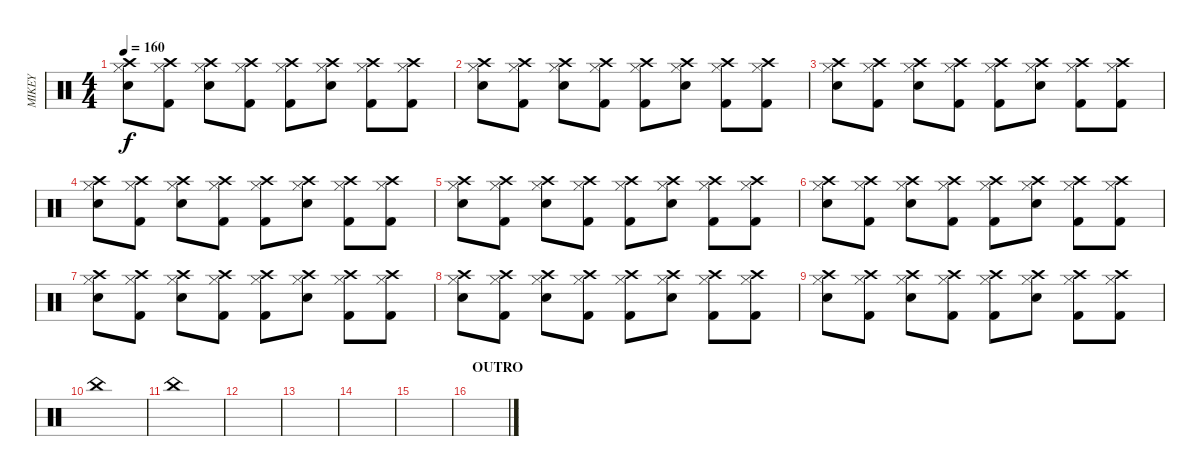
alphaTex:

\track ("MIKEY" "MIKEY") {instrument percussion}
\staff {score}
\articulation defaults
\ts (4 4)
\tempo 160
\clef neutral
\ks c
("Hi-Hat (closed)" "Crash high (hit)" "Electric Snare (hit)").8{dy f} ("Hi-Hat (closed)" "Crash high (hit)" "Kick (hit) 2").8 ("Hi-Hat (closed)" "Crash high (hit)" "Electric Snare (hit)").8 ("Hi-Hat (closed)" "Crash high (hit)" "Kick (hit) 2").8 ("Hi-Hat (closed)" "Crash high (hit)" "Kick (hit) 2").8 ("Hi-Hat (closed)" "Crash high (hit)" "Electric Snare (hit)").8 ("Hi-Hat (closed)" "Crash high (hit)" "Kick (hit) 2").8 ("Hi-Hat (closed)" "Crash high (hit)" "Kick (hit) 2").8 |
("Hi-Hat (closed)" "Crash high (hit)" "Electric Snare (hit)").8 ("Hi-Hat (closed)" "Crash high (hit)" "Kick (hit) 2").8 ("Hi-Hat (closed)" "Crash high (hit)" "Electric Snare (hit)").8 ("Hi-Hat (closed)" "Crash high (hit)" "Kick (hit) 2").8 ("Hi-Hat (closed)" "Crash high (hit)" "Kick (hit) 2").8 ("Hi-Hat (closed)" "Crash high (hit)" "Electric Snare (hit)").8 ("Hi-Hat (closed)" "Crash high (hit)" "Kick (hit) 2").8 ("Hi-Hat (closed)" "Crash high (hit)" "Kick (hit) 2").8 |
("Hi-Hat (closed)" "Crash high (hit)" "Electric Snare (hit)").8 ("Hi-Hat (closed)" "Crash high (hit)" "Kick (hit) 2").8 ("Hi-Hat (closed)" "Crash high (hit)" "Electric Snare (hit)").8 ("Hi-Hat (closed)" "Crash high (hit)" "Kick (hit) 2").8 ("Hi-Hat (closed)" "Crash high (hit)" "Kick (hit) 2").8 ("Hi-Hat (closed)" "Crash high (hit)" "Electric Snare (hit)").8 ("Hi-Hat (closed)" "Crash high (hit)" "Kick (hit) 2").8 ("Hi-Hat (closed)" "Crash high (hit)" "Kick (hit) 2").8 |
("Hi-Hat (closed)" "Crash high (hit)" "Electric Snare (hit)").8 ("Hi-Hat (closed)" "Crash high (hit)" "Kick (hit) 2").8 ("Hi-Hat (closed)" "Crash high (hit)" "Electric Snare (hit)").8 ("Hi-Hat (closed)" "Crash high (hit)" "Kick (hit) 2").8 ("Hi-Hat (closed)" "Crash high (hit)" "Kick (hit) 2").8 ("Hi-Hat (closed)" "Crash high (hit)" "Electric Snare (hit)").8 ("Hi-Hat (closed)" "Crash high (hit)" "Kick (hit) 2").8 ("Hi-Hat (closed)" "Crash high (hit)" "Kick (hit) 2").8 |
("Hi-Hat (closed)" "Crash high (hit)" "Electric Snare (hit)").8 ("Hi-Hat (closed)" "Crash high (hit)" "Kick (hit) 2").8 ("Hi-Hat (closed)" "Crash high (hit)" "Electric Snare (hit)").8 ("Hi-Hat (closed)" "Crash high (hit)" "Kick (hit) 2").8 ("Hi-Hat (closed)" "Crash high (hit)" "Kick (hit) 2").8 ("Hi-Hat (closed)" "Crash high (hit)" "Electric Snare (hit)").8 ("Hi-Hat (closed)" "Crash high (hit)" "Kick (hit) 2").8 ("Hi-Hat (closed)" "Crash high (hit)" "Kick (hit) 2").8 |
("Hi-Hat (closed)" "Crash high (hit)" "Electric Snare (hit)").8 ("Hi-Hat (closed)" "Crash high (hit)" "Kick (hit) 2").8 ("Hi-Hat (closed)" "Crash high (hit)" "Electric Snare (hit)").8 ("Hi-Hat (closed)" "Crash high (hit)" "Kick (hit) 2").8 ("Hi-Hat (closed)" "Crash high (hit)" "Kick (hit) 2").8 ("Hi-Hat (closed)" "Crash high (hit)" "Electric Snare (hit)").8 ("Hi-Hat (closed)" "Crash high (hit)" "Kick (hit) 2").8 ("Hi-Hat (closed)" "Crash high (hit)" "Kick (hit) 2").8 |
("Hi-Hat (closed)" "Crash high (hit)" "Electric Snare (hit)").8 ("Hi-Hat (closed)" "Crash high (hit)" "Kick (hit) 2").8 ("Hi-Hat (closed)" "Crash high (hit)" "Electric Snare (hit)").8 ("Hi-Hat (closed)" "Crash high (hit)" "Kick (hit) 2").8 ("Hi-Hat (closed)" "Crash high (hit)" "Kick (hit) 2").8 ("Hi-Hat (closed)" "Crash high (hit)" "Electric Snare (hit)").8 ("Hi-Hat (closed)" "Crash high (hit)" "Kick (hit) 2").8 ("Hi-Hat (closed)" "Crash high (hit)" "Kick (hit) 2").8 |
("Hi-Hat (closed)" "Crash high (hit)" "Electric Snare (hit)").8 ("Hi-Hat (closed)" "Crash high (hit)" "Kick (hit) 2").8 ("Hi-Hat (closed)" "Crash high (hit)" "Electric Snare (hit)").8 ("Hi-Hat (closed)" "Crash high (hit)" "Kick (hit) 2").8 ("Hi-Hat (closed)" "Crash high (hit)" "Kick (hit) 2").8 ("Hi-Hat (closed)" "Crash high (hit)" "Electric Snare (hit)").8 ("Hi-Hat (closed)" "Crash high (hit)" "Kick (hit) 2").8 ("Hi-Hat (closed)" "Crash high (hit)" "Kick (hit) 2").8 |
("Hi-Hat (closed)" "Crash high (hit)" "Electric Snare (hit)").8 ("Hi-Hat (closed)" "Crash high (hit)" "Kick (hit) 2").8 ("Hi-Hat (closed)" "Crash high (hit)" "Electric Snare (hit)").8 ("Hi-Hat (closed)" "Crash high (hit)" "Kick (hit) 2").8 ("Hi-Hat (closed)" "Crash high (hit)" "Kick (hit) 2").8 ("Hi-Hat (closed)" "Crash high (hit)" "Electric Snare (hit)").8 ("Hi-Hat (closed)" "Crash high (hit)" "Kick (hit) 2").8 ("Hi-Hat (closed)" "Crash high (hit)" "Kick (hit) 2").8 |
"China (hit)".1 |
"China (hit)".1 |
|
|
|
|
\section ("" "OUTRO")
